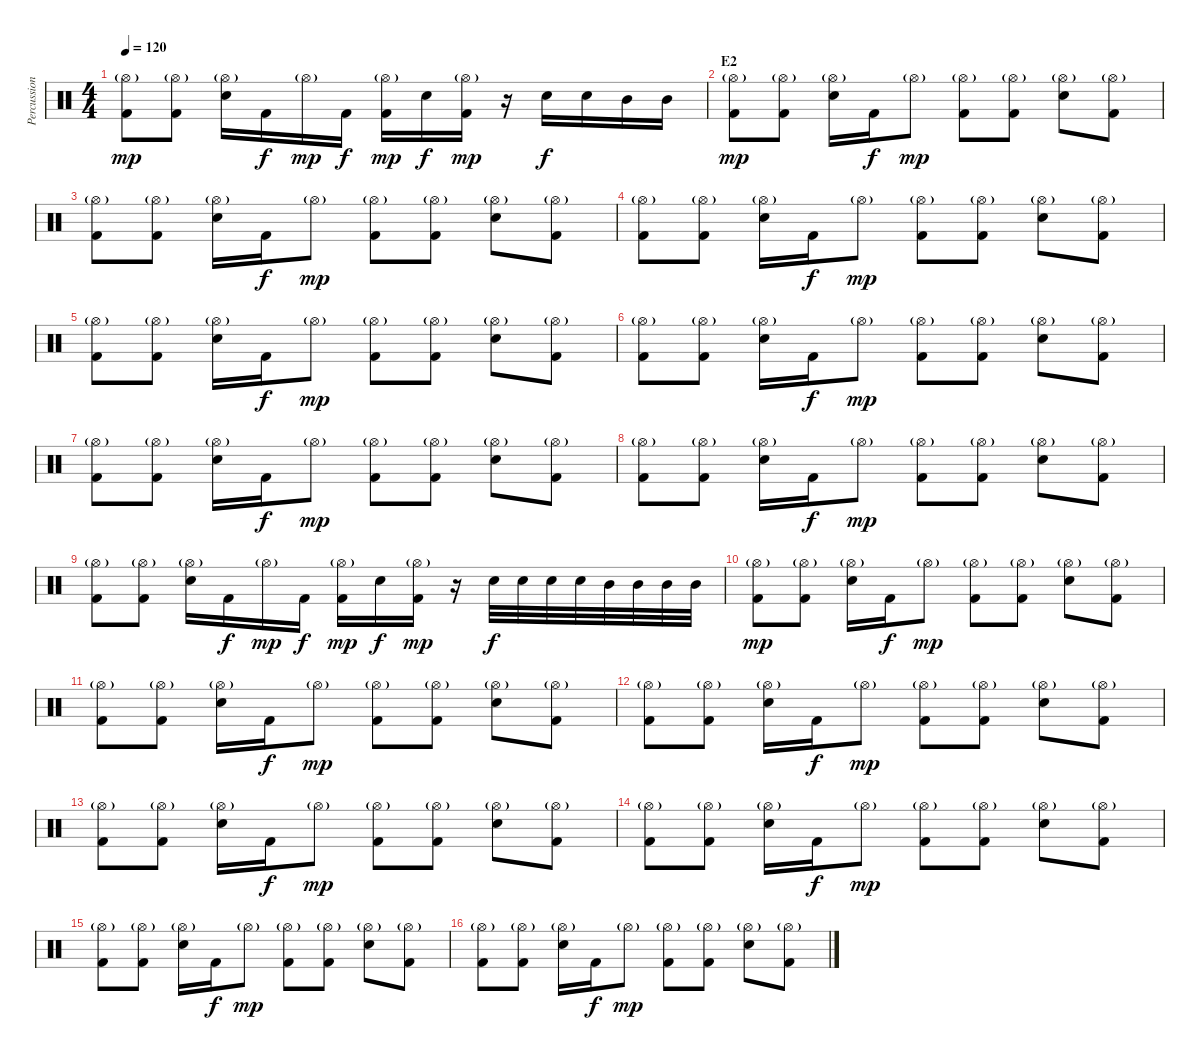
\track ("Percussion" "Percussion") {instrument percussion}
\staff {score}
\articulation defaults
\ts (4 4)
\tempo 120
\clef neutral
\ks c
("Hi-Hat (open)"{g} "Kick (hit) 2").8{dy mp} ("Hi-Hat (open)"{g} "Kick (hit) 2").8 ("Hi-Hat (open)"{g} "Snare (hit) 2").16 "Kick (hit) 2".16{dy f} "Hi-Hat (open)"{g}.16{dy mp} "Kick (hit) 2".16{dy f} ("Hi-Hat (open)"{g} "Kick (hit) 2").16{dy mp} "Snare (hit) 2".16{dy f} ("Hi-Hat (open)"{g} "Kick (hit) 2").16{dy mp} r.16 "Snare (hit) 2".16{dy f} "Snare (hit) 2".16 "Mid Tom (hit)".16 "Mid Tom (hit)".16 |
\section ("" "E2")
("Hi-Hat (open)"{g} "Kick (hit) 2").8{dy mp} ("Hi-Hat (open)"{g} "Kick (hit) 2").8 ("Hi-Hat (open)"{g} "Snare (hit) 2").16 "Kick (hit) 2".16{dy f} "Hi-Hat (open)"{g}.8{dy mp} ("Hi-Hat (open)"{g} "Kick (hit) 2").8 ("Hi-Hat (open)"{g} "Kick (hit) 2").8 ("Hi-Hat (open)"{g} "Snare (hit) 2").8 ("Hi-Hat (open)"{g} "Kick (hit) 2").8 |
("Hi-Hat (open)"{g} "Kick (hit) 2").8 ("Hi-Hat (open)"{g} "Kick (hit) 2").8 ("Hi-Hat (open)"{g} "Snare (hit) 2").16 "Kick (hit) 2".16{dy f} "Hi-Hat (open)"{g}.8{dy mp} ("Hi-Hat (open)"{g} "Kick (hit) 2").8 ("Hi-Hat (open)"{g} "Kick (hit) 2").8 ("Hi-Hat (open)"{g} "Snare (hit) 2").8 ("Hi-Hat (open)"{g} "Kick (hit) 2").8 |
("Hi-Hat (open)"{g} "Kick (hit) 2").8 ("Hi-Hat (open)"{g} "Kick (hit) 2").8 ("Hi-Hat (open)"{g} "Snare (hit) 2").16 "Kick (hit) 2".16{dy f} "Hi-Hat (open)"{g}.8{dy mp} ("Hi-Hat (open)"{g} "Kick (hit) 2").8 ("Hi-Hat (open)"{g} "Kick (hit) 2").8 ("Hi-Hat (open)"{g} "Snare (hit) 2").8 ("Hi-Hat (open)"{g} "Kick (hit) 2").8 |
("Hi-Hat (open)"{g} "Kick (hit) 2").8 ("Hi-Hat (open)"{g} "Kick (hit) 2").8 ("Hi-Hat (open)"{g} "Snare (hit) 2").16 "Kick (hit) 2".16{dy f} "Hi-Hat (open)"{g}.8{dy mp} ("Hi-Hat (open)"{g} "Kick (hit) 2").8 ("Hi-Hat (open)"{g} "Kick (hit) 2").8 ("Hi-Hat (open)"{g} "Snare (hit) 2").8 ("Hi-Hat (open)"{g} "Kick (hit) 2").8 |
("Hi-Hat (open)"{g} "Kick (hit) 2").8 ("Hi-Hat (open)"{g} "Kick (hit) 2").8 ("Hi-Hat (open)"{g} "Snare (hit) 2").16 "Kick (hit) 2".16{dy f} "Hi-Hat (open)"{g}.8{dy mp} ("Hi-Hat (open)"{g} "Kick (hit) 2").8 ("Hi-Hat (open)"{g} "Kick (hit) 2").8 ("Hi-Hat (open)"{g} "Snare (hit) 2").8 ("Hi-Hat (open)"{g} "Kick (hit) 2").8 |
("Hi-Hat (open)"{g} "Kick (hit) 2").8 ("Hi-Hat (open)"{g} "Kick (hit) 2").8 ("Hi-Hat (open)"{g} "Snare (hit) 2").16 "Kick (hit) 2".16{dy f} "Hi-Hat (open)"{g}.8{dy mp} ("Hi-Hat (open)"{g} "Kick (hit) 2").8 ("Hi-Hat (open)"{g} "Kick (hit) 2").8 ("Hi-Hat (open)"{g} "Snare (hit) 2").8 ("Hi-Hat (open)"{g} "Kick (hit) 2").8 |
("Hi-Hat (open)"{g} "Kick (hit) 2").8 ("Hi-Hat (open)"{g} "Kick (hit) 2").8 ("Hi-Hat (open)"{g} "Snare (hit) 2").16 "Kick (hit) 2".16{dy f} "Hi-Hat (open)"{g}.8{dy mp} ("Hi-Hat (open)"{g} "Kick (hit) 2").8 ("Hi-Hat (open)"{g} "Kick (hit) 2").8 ("Hi-Hat (open)"{g} "Snare (hit) 2").8 ("Hi-Hat (open)"{g} "Kick (hit) 2").8 |
("Hi-Hat (open)"{g} "Kick (hit) 2").8 ("Hi-Hat (open)"{g} "Kick (hit) 2").8 ("Hi-Hat (open)"{g} "Snare (hit) 2").16 "Kick (hit) 2".16{dy f} "Hi-Hat (open)"{g}.16{dy mp} "Kick (hit) 2".16{dy f} ("Hi-Hat (open)"{g} "Kick (hit) 2").16{dy mp} "Snare (hit) 2".16{dy f} ("Hi-Hat (open)"{g} "Kick (hit) 2").16{dy mp} r.16 "Snare (hit) 2".32{dy f} "Snare (hit) 2".32 "Snare (hit) 2".32 "Snare (hit) 2".32 "Mid Tom (hit)".32 "Mid Tom (hit)".32 "Mid Tom (hit)".32 "Mid Tom (hit)".32 |
("Hi-Hat (open)"{g} "Kick (hit) 2").8{dy mp} ("Hi-Hat (open)"{g} "Kick (hit) 2").8 ("Hi-Hat (open)"{g} "Snare (hit) 2").16 "Kick (hit) 2".16{dy f} "Hi-Hat (open)"{g}.8{dy mp} ("Hi-Hat (open)"{g} "Kick (hit) 2").8 ("Hi-Hat (open)"{g} "Kick (hit) 2").8 ("Hi-Hat (open)"{g} "Snare (hit) 2").8 ("Hi-Hat (open)"{g} "Kick (hit) 2").8 |
("Hi-Hat (open)"{g} "Kick (hit) 2").8 ("Hi-Hat (open)"{g} "Kick (hit) 2").8 ("Hi-Hat (open)"{g} "Snare (hit) 2").16 "Kick (hit) 2".16{dy f} "Hi-Hat (open)"{g}.8{dy mp} ("Hi-Hat (open)"{g} "Kick (hit) 2").8 ("Hi-Hat (open)"{g} "Kick (hit) 2").8 ("Hi-Hat (open)"{g} "Snare (hit) 2").8 ("Hi-Hat (open)"{g} "Kick (hit) 2").8 |
("Hi-Hat (open)"{g} "Kick (hit) 2").8 ("Hi-Hat (open)"{g} "Kick (hit) 2").8 ("Hi-Hat (open)"{g} "Snare (hit) 2").16 "Kick (hit) 2".16{dy f} "Hi-Hat (open)"{g}.8{dy mp} ("Hi-Hat (open)"{g} "Kick (hit) 2").8 ("Hi-Hat (open)"{g} "Kick (hit) 2").8 ("Hi-Hat (open)"{g} "Snare (hit) 2").8 ("Hi-Hat (open)"{g} "Kick (hit) 2").8 |
("Hi-Hat (open)"{g} "Kick (hit) 2").8 ("Hi-Hat (open)"{g} "Kick (hit) 2").8 ("Hi-Hat (open)"{g} "Snare (hit) 2").16 "Kick (hit) 2".16{dy f} "Hi-Hat (open)"{g}.8{dy mp} ("Hi-Hat (open)"{g} "Kick (hit) 2").8 ("Hi-Hat (open)"{g} "Kick (hit) 2").8 ("Hi-Hat (open)"{g} "Snare (hit) 2").8 ("Hi-Hat (open)"{g} "Kick (hit) 2").8 |
("Hi-Hat (open)"{g} "Kick (hit) 2").8 ("Hi-Hat (open)"{g} "Kick (hit) 2").8 ("Hi-Hat (open)"{g} "Snare (hit) 2").16 "Kick (hit) 2".16{dy f} "Hi-Hat (open)"{g}.8{dy mp} ("Hi-Hat (open)"{g} "Kick (hit) 2").8 ("Hi-Hat (open)"{g} "Kick (hit) 2").8 ("Hi-Hat (open)"{g} "Snare (hit) 2").8 ("Hi-Hat (open)"{g} "Kick (hit) 2").8 |
("Hi-Hat (open)"{g} "Kick (hit) 2").8 ("Hi-Hat (open)"{g} "Kick (hit) 2").8 ("Hi-Hat (open)"{g} "Snare (hit) 2").16 "Kick (hit) 2".16{dy f} "Hi-Hat (open)"{g}.8{dy mp} ("Hi-Hat (open)"{g} "Kick (hit) 2").8 ("Hi-Hat (open)"{g} "Kick (hit) 2").8 ("Hi-Hat (open)"{g} "Snare (hit) 2").8 ("Hi-Hat (open)"{g} "Kick (hit) 2").8 |
("Hi-Hat (open)"{g} "Kick (hit) 2").8 ("Hi-Hat (open)"{g} "Kick (hit) 2").8 ("Hi-Hat (open)"{g} "Snare (hit) 2").16 "Kick (hit) 2".16{dy f} "Hi-Hat (open)"{g}.8{dy mp} ("Hi-Hat (open)"{g} "Kick (hit) 2").8 ("Hi-Hat (open)"{g} "Kick (hit) 2").8 ("Hi-Hat (open)"{g} "Snare (hit) 2").8 ("Hi-Hat (open)"{g} "Kick (hit) 2").8
